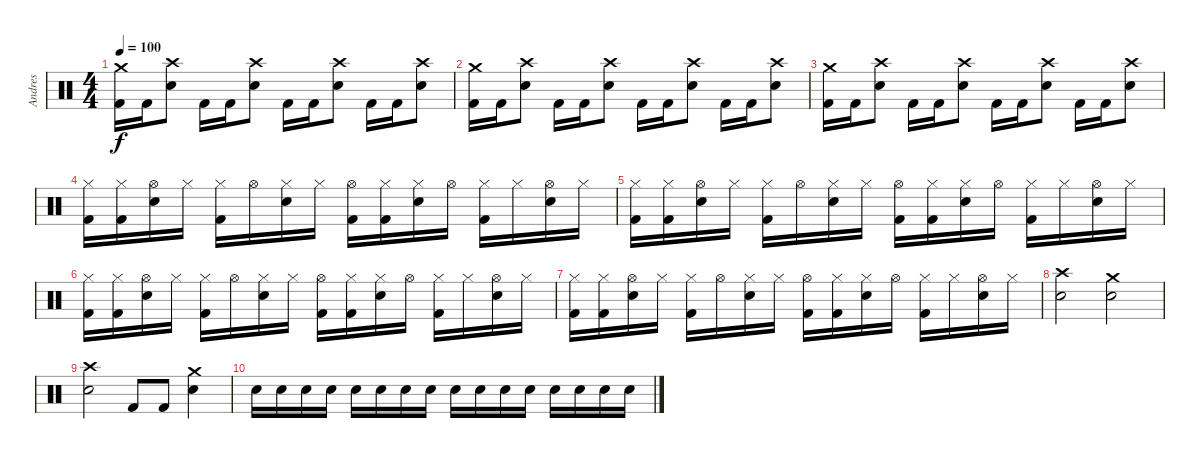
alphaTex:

\track ("Andres" "Andres") {instrument percussion}
\staff {score}
\articulation defaults
\ts (4 4)
\tempo 100
\clef neutral
\ks c
("Crash medium (hit)" "Kick (hit) 2").16{dy f} "Kick (hit) 2".16 ("Crash high (hit)" "Electric Snare (hit)").8 "Kick (hit) 2".16 "Kick (hit) 2".16 ("Crash high (hit)" "Electric Snare (hit)").8 "Kick (hit) 2".16 "Kick (hit) 2".16 ("Crash high (hit)" "Electric Snare (hit)").8 "Kick (hit) 2".16 "Kick (hit) 2".16 ("Crash high (hit)" "Electric Snare (hit)").8 |
("Crash medium (hit)" "Kick (hit) 2").16 "Kick (hit) 2".16 ("Crash high (hit)" "Electric Snare (hit)").8 "Kick (hit) 2".16 "Kick (hit) 2".16 ("Crash high (hit)" "Electric Snare (hit)").8 "Kick (hit) 2".16 "Kick (hit) 2".16 ("Crash high (hit)" "Electric Snare (hit)").8 "Kick (hit) 2".16 "Kick (hit) 2".16 ("Crash high (hit)" "Electric Snare (hit)").8 |
("Crash medium (hit)" "Kick (hit) 2").16 "Kick (hit) 2".16 ("Crash high (hit)" "Electric Snare (hit)").8 "Kick (hit) 2".16 "Kick (hit) 2".16 ("Crash high (hit)" "Electric Snare (hit)").8 "Kick (hit) 2".16 "Kick (hit) 2".16 ("Crash high (hit)" "Electric Snare (hit)").8 "Kick (hit) 2".16 "Kick (hit) 2".16 ("Crash high (hit)" "Electric Snare (hit)").8 |
("Hi-Hat (closed)" "Kick (hit) 2").16 ("Hi-Hat (closed)" "Kick (hit) 2").16 ("Hi-Hat (open)" "Electric Snare (hit)").16 "Hi-Hat (closed)".16 ("Hi-Hat (closed)" "Kick (hit) 2").16 "Hi-Hat (open)".16 ("Hi-Hat (closed)" "Electric Snare (hit)").16 "Hi-Hat (closed)".16 ("Hi-Hat (open)" "Kick (hit) 2").16 ("Hi-Hat (closed)" "Kick (hit) 2").16 ("Hi-Hat (closed)" "Electric Snare (hit)").16 "Hi-Hat (open)".16 ("Hi-Hat (closed)" "Kick (hit) 2").16 "Hi-Hat (closed)".16 ("Hi-Hat (open)" "Electric Snare (hit)").16 "Hi-Hat (closed)".16 |
("Hi-Hat (closed)" "Kick (hit) 2").16 ("Hi-Hat (closed)" "Kick (hit) 2").16 ("Hi-Hat (open)" "Electric Snare (hit)").16 "Hi-Hat (closed)".16 ("Hi-Hat (closed)" "Kick (hit) 2").16 "Hi-Hat (open)".16 ("Hi-Hat (closed)" "Electric Snare (hit)").16 "Hi-Hat (closed)".16 ("Hi-Hat (open)" "Kick (hit) 2").16 ("Hi-Hat (closed)" "Kick (hit) 2").16 ("Hi-Hat (closed)" "Electric Snare (hit)").16 "Hi-Hat (open)".16 ("Hi-Hat (closed)" "Kick (hit) 2").16 "Hi-Hat (closed)".16 ("Hi-Hat (open)" "Electric Snare (hit)").16 "Hi-Hat (closed)".16 |
("Hi-Hat (closed)" "Kick (hit) 2").16 ("Hi-Hat (closed)" "Kick (hit) 2").16 ("Hi-Hat (open)" "Electric Snare (hit)").16 "Hi-Hat (closed)".16 ("Hi-Hat (closed)" "Kick (hit) 2").16 "Hi-Hat (open)".16 ("Hi-Hat (closed)" "Electric Snare (hit)").16 "Hi-Hat (closed)".16 ("Hi-Hat (open)" "Kick (hit) 2").16 ("Hi-Hat (closed)" "Kick (hit) 2").16 ("Hi-Hat (closed)" "Electric Snare (hit)").16 "Hi-Hat (open)".16 ("Hi-Hat (closed)" "Kick (hit) 2").16 "Hi-Hat (closed)".16 ("Hi-Hat (open)" "Electric Snare (hit)").16 "Hi-Hat (closed)".16 |
("Hi-Hat (closed)" "Kick (hit) 2").16 ("Hi-Hat (closed)" "Kick (hit) 2").16 ("Hi-Hat (open)" "Electric Snare (hit)").16 "Hi-Hat (closed)".16 ("Hi-Hat (closed)" "Kick (hit) 2").16 "Hi-Hat (open)".16 ("Hi-Hat (closed)" "Electric Snare (hit)").16 "Hi-Hat (closed)".16 ("Hi-Hat (open)" "Kick (hit) 2").16 ("Hi-Hat (closed)" "Kick (hit) 2").16 ("Hi-Hat (closed)" "Electric Snare (hit)").16 "Hi-Hat (open)".16 ("Hi-Hat (closed)" "Kick (hit) 2").16 "Hi-Hat (closed)".16 ("Hi-Hat (open)" "Electric Snare (hit)").16 "Hi-Hat (closed)".16 |
("Crash high (hit)" "Electric Snare (hit)").2 ("Crash medium (hit)" "Electric Snare (hit)").2 |
("Crash high (hit)" "Electric Snare (hit)").2 "Kick (hit) 2".8 "Kick (hit) 2".8 ("Crash medium (hit)" "Electric Snare (hit)").4 |
"Electric Snare (hit)".16{volume 0} "Electric Snare (hit)".16{volume 16} "Electric Snare (hit)".16 "Electric Snare (hit)".16 "Electric Snare (hit)".16 "Electric Snare (hit)".16 "Electric Snare (hit)".16 "Electric Snare (hit)".16 "Electric Snare (hit)".16 "Electric Snare (hit)".16 "Electric Snare (hit)".16 "Electric Snare (hit)".16 "Electric Snare (hit)".16 "Electric Snare (hit)".16 "Electric Snare (hit)".16 "Electric Snare (hit)".16
